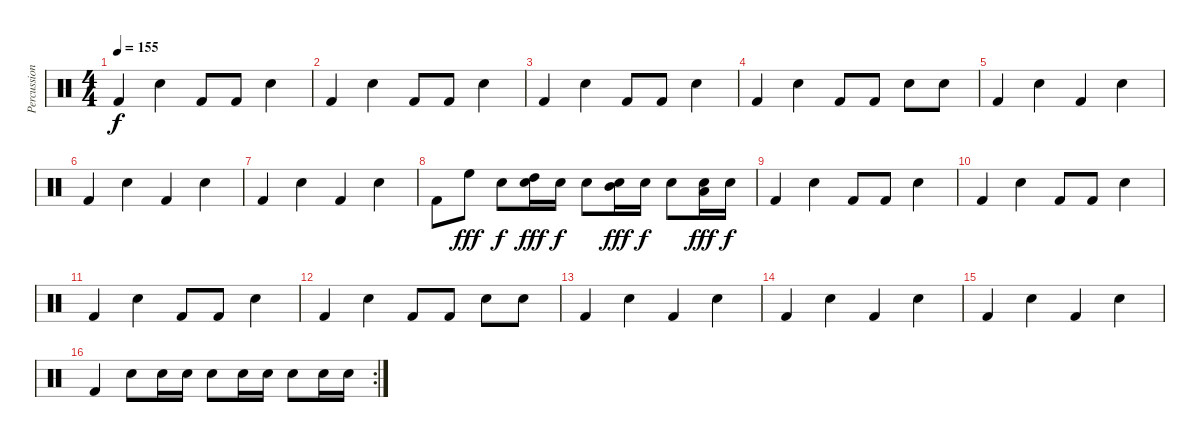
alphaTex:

\track ("Percussion" "Percussion") {instrument percussion}
\staff {score}
\articulation defaults
\ts (4 4)
\tempo 155
\clef neutral
\ks c "Kick (hit) 2".4{dy f} "Snare (hit) 2".4 "Kick (hit) 2".8 "Kick (hit) 2".8 "Snare (hit) 2".4
|
"Kick (hit) 2".4 "Snare (hit) 2".4 "Kick (hit) 2".8 "Kick (hit) 2".8 "Snare (hit) 2".4 |
"Kick (hit) 2".4 "Snare (hit) 2".4 "Kick (hit) 2".8 "Kick (hit) 2".8 "Snare (hit) 2".4 |
"Kick (hit) 2".4 "Snare (hit) 2".4 "Kick (hit) 2".8 "Kick (hit) 2".8 "Snare (hit) 2".8 "Snare (hit) 2".8 |
"Kick (hit) 2".4 "Snare (hit) 2".4 "Kick (hit) 2".4 "Snare (hit) 2".4 |
"Kick (hit) 2".4 "Snare (hit) 2".4 "Kick (hit) 2".4 "Snare (hit) 2".4 |
"Kick (hit) 2".4 "Snare (hit) 2".4 "Kick (hit) 2".4 "Snare (hit) 2".4 |
"Kick (hit) 2".8 "High Floor Tom (hit)".8{dy fff} "Snare (hit) 2".8{dy f} ("Snare (hit) 2" "High Tom (hit)").16{dy fff} "Snare (hit) 2".16{dy f} "Snare (hit) 2".8 ("Snare (hit) 2" "Mid Tom (hit)").16{dy fff} "Snare (hit) 2".16{dy f} "Snare (hit) 2".8 ("Snare (hit) 2" "Low Tom (hit)").16{dy fff} "Snare (hit) 2".16{dy f} |
"Kick (hit) 2".4 "Snare (hit) 2".4 "Kick (hit) 2".8 "Kick (hit) 2".8 "Snare (hit) 2".4 |
"Kick (hit) 2".4 "Snare (hit) 2".4 "Kick (hit) 2".8 "Kick (hit) 2".8 "Snare (hit) 2".4 |
"Kick (hit) 2".4 "Snare (hit) 2".4 "Kick (hit) 2".8 "Kick (hit) 2".8 "Snare (hit) 2".4 |
"Kick (hit) 2".4 "Snare (hit) 2".4 "Kick (hit) 2".8 "Kick (hit) 2".8 "Snare (hit) 2".8 "Snare (hit) 2".8 |
"Kick (hit) 2".4 "Snare (hit) 2".4 "Kick (hit) 2".4 "Snare (hit) 2".4 |
"Kick (hit) 2".4 "Snare (hit) 2".4 "Kick (hit) 2".4 "Snare (hit) 2".4 |
"Kick (hit) 2".4 "Snare (hit) 2".4 "Kick (hit) 2".4 "Snare (hit) 2".4 |
\rc 2 "Kick (hit) 2".4 "Snare (hit) 2".8 "Snare (hit) 2".16 "Snare (hit) 2".16 "Snare (hit) 2".8 "Snare (hit) 2".16 "Snare (hit) 2".16 "Snare (hit) 2".8 "Snare (hit) 2".16 "Snare (hit) 2".16
